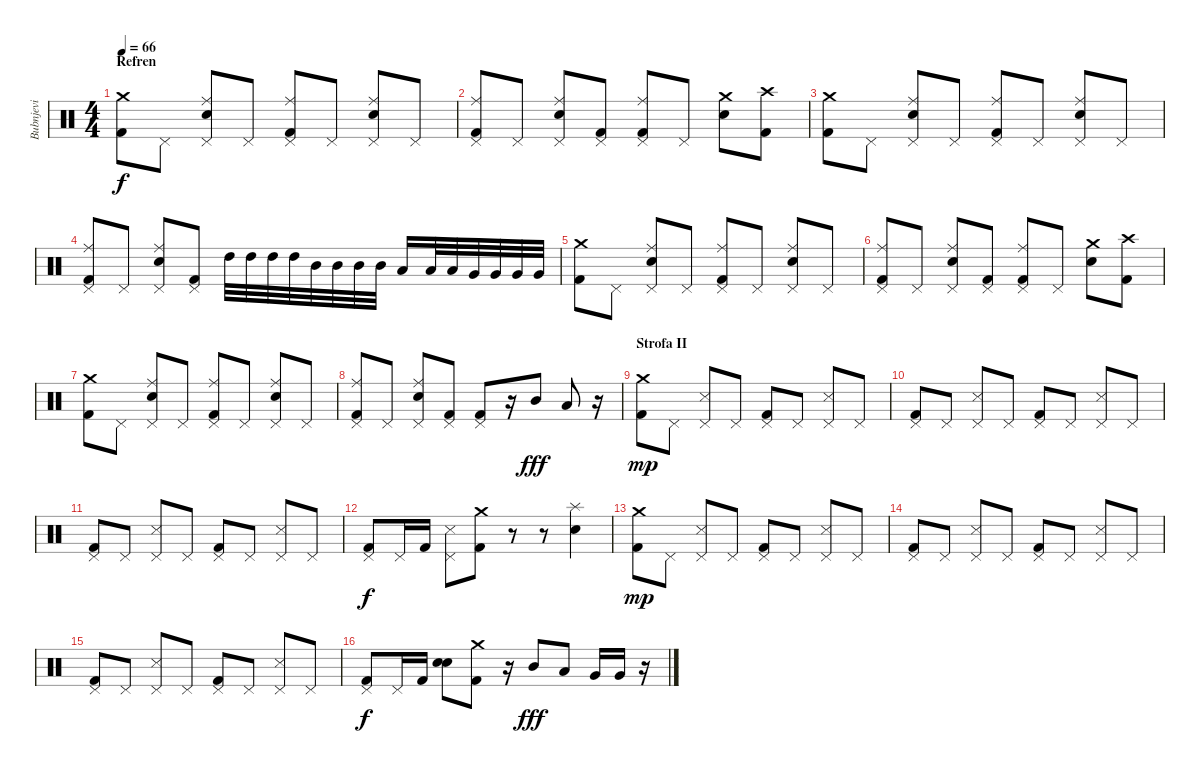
\track ("Bubnjevi" "Bubnjevi") {instrument percussion}
\staff {score}
\articulation defaults
\ts (4 4)
\section ("" "Refren")
\tempo 66
\clef neutral
\ks c
("Crash medium (hit)" "Kick (hit) 2").8{dy f} "Pedal Hi-Hat (hit)".8 ("Pedal Hi-Hat (hit)" "Electric Snare (hit)" "Ride (middle)").8 "Pedal Hi-Hat (hit)".8 ("Pedal Hi-Hat (hit)" "Kick (hit) 2" "Ride (middle)").8 "Pedal Hi-Hat (hit)".8 ("Pedal Hi-Hat (hit)" "Electric Snare (hit)" "Ride (middle)").8 "Pedal Hi-Hat (hit)".8 |
("Pedal Hi-Hat (hit)" "Kick (hit) 2" "Ride (middle)").8 "Pedal Hi-Hat (hit)".8 ("Pedal Hi-Hat (hit)" "Electric Snare (hit)" "Ride (middle)").8 ("Pedal Hi-Hat (hit)" "Kick (hit) 2").8 ("Pedal Hi-Hat (hit)" "Kick (hit) 2" "Ride (middle)").8 "Pedal Hi-Hat (hit)".8 ("Crash medium (hit)" "Electric Snare (hit)").8 ("Crash high (hit)" "Kick (hit) 2").8 |
("Crash medium (hit)" "Kick (hit) 2").8 "Pedal Hi-Hat (hit)".8 ("Pedal Hi-Hat (hit)" "Electric Snare (hit)" "Ride (middle)").8 "Pedal Hi-Hat (hit)".8 ("Pedal Hi-Hat (hit)" "Kick (hit) 2" "Ride (middle)").8 "Pedal Hi-Hat (hit)".8 ("Pedal Hi-Hat (hit)" "Electric Snare (hit)" "Ride (middle)").8 "Pedal Hi-Hat (hit)".8 |
("Pedal Hi-Hat (hit)" "Kick (hit) 2" "Ride (middle)").8 "Pedal Hi-Hat (hit)".8 ("Pedal Hi-Hat (hit)" "Electric Snare (hit)" "Ride (middle)").8 ("Pedal Hi-Hat (hit)" "Kick (hit) 2").8 "High Tom (hit)".32 "High Tom (hit)".32 "High Tom (hit)".32 "High Tom (hit)".32 "Mid Tom (hit)".32 "Mid Tom (hit)".32 "Mid Tom (hit)".32 "Mid Tom (hit)".32 "Low Tom (hit)".16 "Low Tom (hit)".32 "Low Tom (hit)".32 "Very Low Tom (hit)".32 "Very Low Tom (hit)".32 "Very Low Tom (hit)".32 "Very Low Tom (hit)".32 |
("Crash medium (hit)" "Kick (hit) 2").8 "Pedal Hi-Hat (hit)".8 ("Pedal Hi-Hat (hit)" "Electric Snare (hit)" "Ride (middle)").8 "Pedal Hi-Hat (hit)".8 ("Pedal Hi-Hat (hit)" "Kick (hit) 2" "Ride (middle)").8 "Pedal Hi-Hat (hit)".8 ("Pedal Hi-Hat (hit)" "Electric Snare (hit)" "Ride (middle)").8 "Pedal Hi-Hat (hit)".8 |
("Pedal Hi-Hat (hit)" "Kick (hit) 2" "Ride (middle)").8 "Pedal Hi-Hat (hit)".8 ("Pedal Hi-Hat (hit)" "Electric Snare (hit)" "Ride (middle)").8 ("Pedal Hi-Hat (hit)" "Kick (hit) 2").8 ("Pedal Hi-Hat (hit)" "Kick (hit) 2" "Ride (middle)").8 "Pedal Hi-Hat (hit)".8 ("Crash medium (hit)" "Electric Snare (hit)").8 ("Crash high (hit)" "Kick (hit) 2").8 |
("Crash medium (hit)" "Kick (hit) 2").8 "Pedal Hi-Hat (hit)".8 ("Pedal Hi-Hat (hit)" "Electric Snare (hit)" "Ride (middle)").8 "Pedal Hi-Hat (hit)".8 ("Pedal Hi-Hat (hit)" "Kick (hit) 2" "Ride (middle)").8 "Pedal Hi-Hat (hit)".8 ("Pedal Hi-Hat (hit)" "Electric Snare (hit)" "Ride (middle)").8 "Pedal Hi-Hat (hit)".8 |
("Pedal Hi-Hat (hit)" "Kick (hit) 2" "Ride (middle)").8 "Pedal Hi-Hat (hit)".8 ("Pedal Hi-Hat (hit)" "Electric Snare (hit)" "Ride (middle)").8 ("Pedal Hi-Hat (hit)" "Kick (hit) 2").8 ("Pedal Hi-Hat (hit)" "Kick (hit) 2").8 r.16 "Mid Tom (hit)".8{dy fff} "Low Tom (hit)".8 r.16 |
\section ("" "Strofa II")
("Crash medium (hit)" "Kick (hit) 2").8{dy mp} "Pedal Hi-Hat (hit)".8 ("Pedal Hi-Hat (hit)" "Snare (side stick) 3").8 "Pedal Hi-Hat (hit)".8 ("Pedal Hi-Hat (hit)" "Kick (hit) 2").8 "Pedal Hi-Hat (hit)".8 ("Pedal Hi-Hat (hit)" "Snare (side stick) 3").8 "Pedal Hi-Hat (hit)".8 |
("Pedal Hi-Hat (hit)" "Kick (hit) 2").8 "Pedal Hi-Hat (hit)".8 ("Pedal Hi-Hat (hit)" "Snare (side stick) 3").8 "Pedal Hi-Hat (hit)".8 ("Pedal Hi-Hat (hit)" "Kick (hit) 2").8 "Pedal Hi-Hat (hit)".8 ("Pedal Hi-Hat (hit)" "Snare (side stick) 3").8 "Pedal Hi-Hat (hit)".8 |
("Pedal Hi-Hat (hit)" "Kick (hit) 2").8 "Pedal Hi-Hat (hit)".8 ("Pedal Hi-Hat (hit)" "Snare (side stick) 3").8 "Pedal Hi-Hat (hit)".8 ("Pedal Hi-Hat (hit)" "Kick (hit) 2").8 "Pedal Hi-Hat (hit)".8 ("Pedal Hi-Hat (hit)" "Snare (side stick) 3").8 "Pedal Hi-Hat (hit)".8 |
("Pedal Hi-Hat (hit)" "Kick (hit) 2").8{dy f} "Pedal Hi-Hat (hit)".16 "Kick (hit) 2".16 ("Pedal Hi-Hat (hit)" "Snare (side stick) 3").8 ("Crash medium (hit)" "Kick (hit) 2").8 r.8 r.8 ("Splash (hit)" "Electric Snare (hit)").4 |
("Crash medium (hit)" "Kick (hit) 2").8{dy mp} "Pedal Hi-Hat (hit)".8 ("Pedal Hi-Hat (hit)" "Snare (side stick) 3").8 "Pedal Hi-Hat (hit)".8 ("Pedal Hi-Hat (hit)" "Kick (hit) 2").8 "Pedal Hi-Hat (hit)".8 ("Pedal Hi-Hat (hit)" "Snare (side stick) 3").8 "Pedal Hi-Hat (hit)".8 |
("Pedal Hi-Hat (hit)" "Kick (hit) 2").8 "Pedal Hi-Hat (hit)".8 ("Pedal Hi-Hat (hit)" "Snare (side stick) 3").8 "Pedal Hi-Hat (hit)".8 ("Pedal Hi-Hat (hit)" "Kick (hit) 2").8 "Pedal Hi-Hat (hit)".8 ("Pedal Hi-Hat (hit)" "Snare (side stick) 3").8 "Pedal Hi-Hat (hit)".8 |
("Pedal Hi-Hat (hit)" "Kick (hit) 2").8 "Pedal Hi-Hat (hit)".8 ("Pedal Hi-Hat (hit)" "Snare (side stick) 3").8 "Pedal Hi-Hat (hit)".8 ("Pedal Hi-Hat (hit)" "Kick (hit) 2").8 "Pedal Hi-Hat (hit)".8 ("Pedal Hi-Hat (hit)" "Snare (side stick) 3").8 "Pedal Hi-Hat (hit)".8 |
("Pedal Hi-Hat (hit)" "Kick (hit) 2").8{dy f} "Pedal Hi-Hat (hit)".16 "Kick (hit) 2".16 ("Electric Snare (hit)" "Electric Snare (hit)").8{bd 120} ("Crash medium (hit)" "Kick (hit) 2").8 r.16 "Mid Tom (hit)".8{dy fff} "Low Tom (hit)".8 "Very Low Tom (hit)".16 "Very Low Tom (hit)".16 r.16
